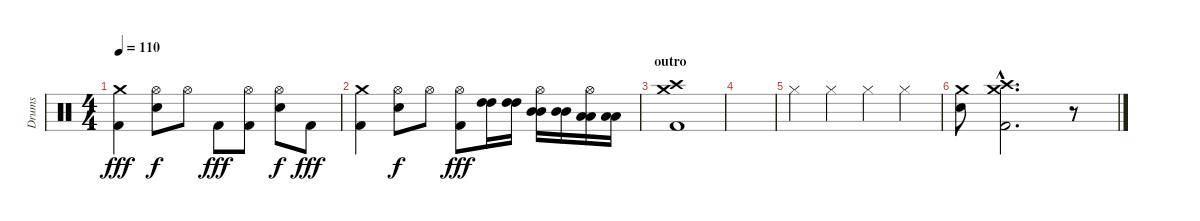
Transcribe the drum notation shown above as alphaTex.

\track ("Drums" "Drums") {instrument percussion}
\staff {score}
\articulation defaults
\ts (4 4)
\tempo 110
\clef neutral
\ks c
("Crash medium (hit)" "Kick (hit) 2").4{dy fff} ("Hi-Hat (open)" "Electric Snare (hit)").8{dy f} "Hi-Hat (open)".8 "Kick (hit) 2".8{dy fff} ("Hi-Hat (open)" "Kick (hit) 2").8 ("Hi-Hat (open)" "Electric Snare (hit)").8{dy f} "Kick (hit) 2".8{dy fff} |
("Crash medium (hit)" "Kick (hit) 2").4 ("Hi-Hat (open)" "Electric Snare (hit)").8{dy f} "Hi-Hat (open)".8 ("Hi-Hat (open)" "Kick (hit) 2").8{dy fff} ("High Tom (hit)" "High Tom (hit)").16 ("High Tom (hit)" "High Tom (hit)").16 ("Hi-Hat (open)" "Mid Tom (hit)" "Mid Tom (hit)").16 ("Mid Tom (hit)" "Mid Tom (hit)").16 ("Hi-Hat (open)" "Low Tom (hit)" "Low Tom (hit)").16 ("Low Tom (hit)" "Low Tom (hit)").16 |
\section ("" "outro")
("Crash high (hit)" "Crash medium (hit)" "Kick (hit) 2").1 |
|
"Hi-Hat (closed)".4 "Hi-Hat (closed)".4 "Hi-Hat (closed)".4 "Hi-Hat (closed)".4 |
("Crash medium (hit)" "Electric Snare (hit)").8 ("Crash medium (hit)"{hac} "Kick (hit) 2"{hac} "Crash high (hit)"{hac}).2{d} r.8
